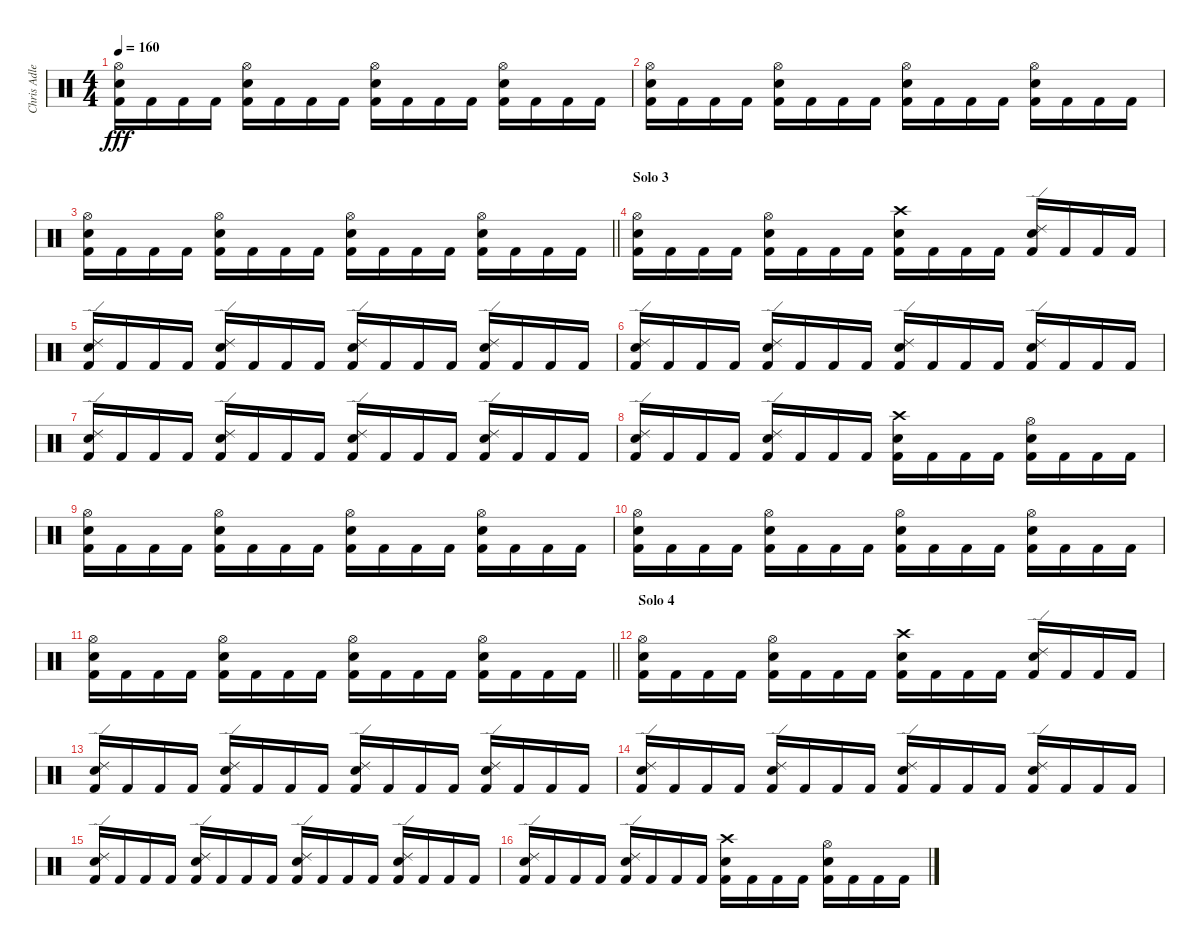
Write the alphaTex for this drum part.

\track ("Chris Adler" "Chris Adle") {instrument percussion}
\staff {score}
\articulation defaults
\ts (4 4)
\tempo 160
\clef neutral
\ks c
("Hi-Hat (open)" "Snare (hit) 2" "Kick (hit) 2").16{dy fff} "Kick (hit) 2".16 "Kick (hit) 2".16 "Kick (hit) 2".16 ("Hi-Hat (open)" "Snare (hit) 2" "Kick (hit) 2").16 "Kick (hit) 2".16 "Kick (hit) 2".16 "Kick (hit) 2".16 ("Hi-Hat (open)" "Snare (hit) 2" "Kick (hit) 2").16 "Kick (hit) 2".16 "Kick (hit) 2".16 "Kick (hit) 2".16 ("Hi-Hat (open)" "Snare (hit) 2" "Kick (hit) 2").16 "Kick (hit) 2".16 "Kick (hit) 2".16 "Kick (hit) 2".16 |
("Hi-Hat (open)" "Snare (hit) 2" "Kick (hit) 2").16 "Kick (hit) 2".16 "Kick (hit) 2".16 "Kick (hit) 2".16 ("Hi-Hat (open)" "Snare (hit) 2" "Kick (hit) 2").16 "Kick (hit) 2".16 "Kick (hit) 2".16 "Kick (hit) 2".16 ("Hi-Hat (open)" "Snare (hit) 2" "Kick (hit) 2").16 "Kick (hit) 2".16 "Kick (hit) 2".16 "Kick (hit) 2".16 ("Hi-Hat (open)" "Snare (hit) 2" "Kick (hit) 2").16 "Kick (hit) 2".16 "Kick (hit) 2".16 "Kick (hit) 2".16 |
\barLineRight lightlight
("Hi-Hat (open)" "Snare (hit) 2" "Kick (hit) 2").16 "Kick (hit) 2".16 "Kick (hit) 2".16 "Kick (hit) 2".16 ("Hi-Hat (open)" "Snare (hit) 2" "Kick (hit) 2").16 "Kick (hit) 2".16 "Kick (hit) 2".16 "Kick (hit) 2".16 ("Hi-Hat (open)" "Snare (hit) 2" "Kick (hit) 2").16 "Kick (hit) 2".16 "Kick (hit) 2".16 "Kick (hit) 2".16 ("Hi-Hat (open)" "Snare (hit) 2" "Kick (hit) 2").16 "Kick (hit) 2".16 "Kick (hit) 2".16 "Kick (hit) 2".16 |
\section ("" "Solo 3")
("Hi-Hat (open)" "Snare (hit) 2" "Kick (hit) 2").16 "Kick (hit) 2".16 "Kick (hit) 2".16 "Kick (hit) 2".16 ("Hi-Hat (open)" "Snare (hit) 2" "Kick (hit) 2").16 "Kick (hit) 2".16 "Kick (hit) 2".16 "Kick (hit) 2".16 ("Crash high (hit)" "Snare (hit) 2" "Kick (hit) 2").16 "Kick (hit) 2".16 "Kick (hit) 2".16 "Kick (hit) 2".16 ("Ride (edge) 2" "Snare (hit) 2" "Kick (hit) 2").16 "Kick (hit) 2".16 "Kick (hit) 2".16 "Kick (hit) 2".16 |
("Ride (edge) 2" "Snare (hit) 2" "Kick (hit) 2").16 "Kick (hit) 2".16 "Kick (hit) 2".16 "Kick (hit) 2".16 ("Ride (edge) 2" "Snare (hit) 2" "Kick (hit) 2").16 "Kick (hit) 2".16 "Kick (hit) 2".16 "Kick (hit) 2".16 ("Ride (edge) 2" "Snare (hit) 2" "Kick (hit) 2").16 "Kick (hit) 2".16 "Kick (hit) 2".16 "Kick (hit) 2".16 ("Ride (edge) 2" "Snare (hit) 2" "Kick (hit) 2").16 "Kick (hit) 2".16 "Kick (hit) 2".16 "Kick (hit) 2".16 |
("Ride (edge) 2" "Snare (hit) 2" "Kick (hit) 2").16 "Kick (hit) 2".16 "Kick (hit) 2".16 "Kick (hit) 2".16 ("Ride (edge) 2" "Snare (hit) 2" "Kick (hit) 2").16 "Kick (hit) 2".16 "Kick (hit) 2".16 "Kick (hit) 2".16 ("Ride (edge) 2" "Snare (hit) 2" "Kick (hit) 2").16 "Kick (hit) 2".16 "Kick (hit) 2".16 "Kick (hit) 2".16 ("Ride (edge) 2" "Snare (hit) 2" "Kick (hit) 2").16 "Kick (hit) 2".16 "Kick (hit) 2".16 "Kick (hit) 2".16 |
("Ride (edge) 2" "Snare (hit) 2" "Kick (hit) 2").16 "Kick (hit) 2".16 "Kick (hit) 2".16 "Kick (hit) 2".16 ("Ride (edge) 2" "Snare (hit) 2" "Kick (hit) 2").16 "Kick (hit) 2".16 "Kick (hit) 2".16 "Kick (hit) 2".16 ("Ride (edge) 2" "Snare (hit) 2" "Kick (hit) 2").16 "Kick (hit) 2".16 "Kick (hit) 2".16 "Kick (hit) 2".16 ("Ride (edge) 2" "Snare (hit) 2" "Kick (hit) 2").16 "Kick (hit) 2".16 "Kick (hit) 2".16 "Kick (hit) 2".16 |
("Ride (edge) 2" "Snare (hit) 2" "Kick (hit) 2").16 "Kick (hit) 2".16 "Kick (hit) 2".16 "Kick (hit) 2".16 ("Ride (edge) 2" "Snare (hit) 2" "Kick (hit) 2").16 "Kick (hit) 2".16 "Kick (hit) 2".16 "Kick (hit) 2".16 ("Crash high (hit)" "Snare (hit) 2" "Kick (hit) 2").16 "Kick (hit) 2".16 "Kick (hit) 2".16 "Kick (hit) 2".16 ("Hi-Hat (open)" "Snare (hit) 2" "Kick (hit) 2").16 "Kick (hit) 2".16 "Kick (hit) 2".16 "Kick (hit) 2".16 |
("Hi-Hat (open)" "Snare (hit) 2" "Kick (hit) 2").16 "Kick (hit) 2".16 "Kick (hit) 2".16 "Kick (hit) 2".16 ("Hi-Hat (open)" "Snare (hit) 2" "Kick (hit) 2").16 "Kick (hit) 2".16 "Kick (hit) 2".16 "Kick (hit) 2".16 ("Hi-Hat (open)" "Snare (hit) 2" "Kick (hit) 2").16 "Kick (hit) 2".16 "Kick (hit) 2".16 "Kick (hit) 2".16 ("Hi-Hat (open)" "Snare (hit) 2" "Kick (hit) 2").16 "Kick (hit) 2".16 "Kick (hit) 2".16 "Kick (hit) 2".16 |
("Hi-Hat (open)" "Snare (hit) 2" "Kick (hit) 2").16 "Kick (hit) 2".16 "Kick (hit) 2".16 "Kick (hit) 2".16 ("Hi-Hat (open)" "Snare (hit) 2" "Kick (hit) 2").16 "Kick (hit) 2".16 "Kick (hit) 2".16 "Kick (hit) 2".16 ("Hi-Hat (open)" "Snare (hit) 2" "Kick (hit) 2").16 "Kick (hit) 2".16 "Kick (hit) 2".16 "Kick (hit) 2".16 ("Hi-Hat (open)" "Snare (hit) 2" "Kick (hit) 2").16 "Kick (hit) 2".16 "Kick (hit) 2".16 "Kick (hit) 2".16 |
\barLineRight lightlight
("Hi-Hat (open)" "Snare (hit) 2" "Kick (hit) 2").16 "Kick (hit) 2".16 "Kick (hit) 2".16 "Kick (hit) 2".16 ("Hi-Hat (open)" "Snare (hit) 2" "Kick (hit) 2").16 "Kick (hit) 2".16 "Kick (hit) 2".16 "Kick (hit) 2".16 ("Hi-Hat (open)" "Snare (hit) 2" "Kick (hit) 2").16 "Kick (hit) 2".16 "Kick (hit) 2".16 "Kick (hit) 2".16 ("Hi-Hat (open)" "Snare (hit) 2" "Kick (hit) 2").16 "Kick (hit) 2".16 "Kick (hit) 2".16 "Kick (hit) 2".16 |
\section ("" "Solo 4")
("Hi-Hat (open)" "Snare (hit) 2" "Kick (hit) 2").16 "Kick (hit) 2".16 "Kick (hit) 2".16 "Kick (hit) 2".16 ("Hi-Hat (open)" "Snare (hit) 2" "Kick (hit) 2").16 "Kick (hit) 2".16 "Kick (hit) 2".16 "Kick (hit) 2".16 ("Crash high (hit)" "Snare (hit) 2" "Kick (hit) 2").16 "Kick (hit) 2".16 "Kick (hit) 2".16 "Kick (hit) 2".16 ("Ride (edge) 2" "Snare (hit) 2" "Kick (hit) 2").16 "Kick (hit) 2".16 "Kick (hit) 2".16 "Kick (hit) 2".16 |
("Ride (edge) 2" "Snare (hit) 2" "Kick (hit) 2").16 "Kick (hit) 2".16 "Kick (hit) 2".16 "Kick (hit) 2".16 ("Ride (edge) 2" "Snare (hit) 2" "Kick (hit) 2").16 "Kick (hit) 2".16 "Kick (hit) 2".16 "Kick (hit) 2".16 ("Ride (edge) 2" "Snare (hit) 2" "Kick (hit) 2").16 "Kick (hit) 2".16 "Kick (hit) 2".16 "Kick (hit) 2".16 ("Ride (edge) 2" "Snare (hit) 2" "Kick (hit) 2").16 "Kick (hit) 2".16 "Kick (hit) 2".16 "Kick (hit) 2".16 |
("Ride (edge) 2" "Snare (hit) 2" "Kick (hit) 2").16 "Kick (hit) 2".16 "Kick (hit) 2".16 "Kick (hit) 2".16 ("Ride (edge) 2" "Snare (hit) 2" "Kick (hit) 2").16 "Kick (hit) 2".16 "Kick (hit) 2".16 "Kick (hit) 2".16 ("Ride (edge) 2" "Snare (hit) 2" "Kick (hit) 2").16 "Kick (hit) 2".16 "Kick (hit) 2".16 "Kick (hit) 2".16 ("Ride (edge) 2" "Snare (hit) 2" "Kick (hit) 2").16 "Kick (hit) 2".16 "Kick (hit) 2".16 "Kick (hit) 2".16 |
("Ride (edge) 2" "Snare (hit) 2" "Kick (hit) 2").16 "Kick (hit) 2".16 "Kick (hit) 2".16 "Kick (hit) 2".16 ("Ride (edge) 2" "Snare (hit) 2" "Kick (hit) 2").16 "Kick (hit) 2".16 "Kick (hit) 2".16 "Kick (hit) 2".16 ("Ride (edge) 2" "Snare (hit) 2" "Kick (hit) 2").16 "Kick (hit) 2".16 "Kick (hit) 2".16 "Kick (hit) 2".16 ("Ride (edge) 2" "Snare (hit) 2" "Kick (hit) 2").16 "Kick (hit) 2".16 "Kick (hit) 2".16 "Kick (hit) 2".16 |
("Ride (edge) 2" "Snare (hit) 2" "Kick (hit) 2").16 "Kick (hit) 2".16 "Kick (hit) 2".16 "Kick (hit) 2".16 ("Ride (edge) 2" "Snare (hit) 2" "Kick (hit) 2").16 "Kick (hit) 2".16 "Kick (hit) 2".16 "Kick (hit) 2".16 ("Crash high (hit)" "Snare (hit) 2" "Kick (hit) 2").16 "Kick (hit) 2".16 "Kick (hit) 2".16 "Kick (hit) 2".16 ("Hi-Hat (open)" "Snare (hit) 2" "Kick (hit) 2").16 "Kick (hit) 2".16 "Kick (hit) 2".16 "Kick (hit) 2".16
